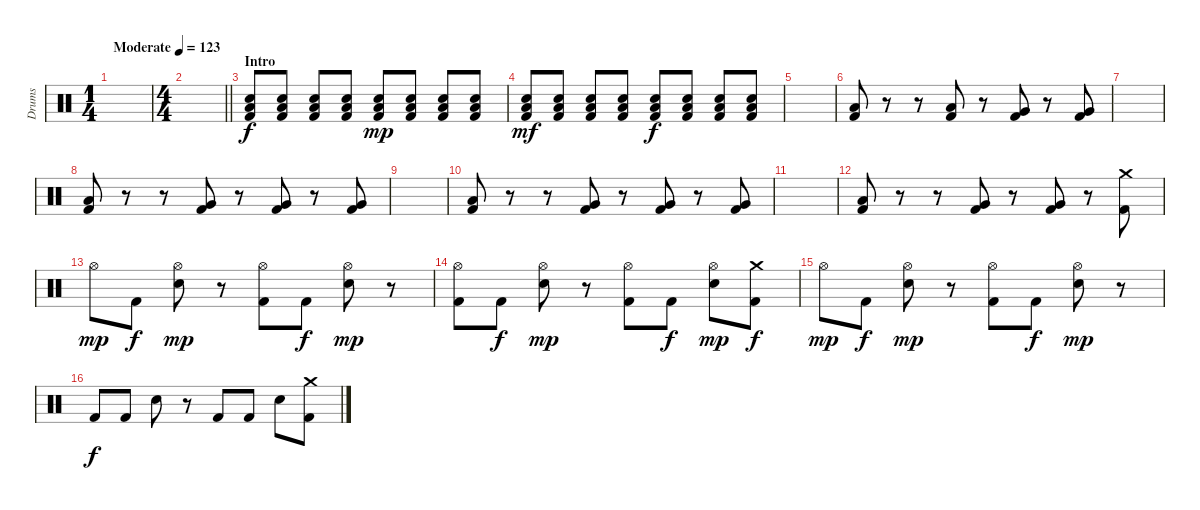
\track ("Drums" "Drums") {instrument percussion}
\staff {score}
\articulation defaults
\ts (1 4)
\tempo (123 "Moderate")
\clef neutral
\ks c
|
\ts (4 4)
\barLineRight lightlight
|
\section ("" "Intro")
("Snare (hit) 2" "Low Tom (hit)" "Kick (hit) 2").8 ("Snare (hit) 2" "Low Tom (hit)" "Kick (hit) 2").8 ("Snare (hit) 2" "Low Tom (hit)" "Kick (hit) 2").8 ("Snare (hit) 2" "Low Tom (hit)" "Kick (hit) 2").8 ("Snare (hit) 2" "Low Tom (hit)" "Kick (hit) 2").8{dy mp} ("Snare (hit) 2" "Low Tom (hit)" "Kick (hit) 2").8 ("Snare (hit) 2" "Low Tom (hit)" "Kick (hit) 2").8 ("Snare (hit) 2" "Low Tom (hit)" "Kick (hit) 2").8 |
("Snare (hit) 2" "Low Tom (hit)" "Kick (hit) 2").8{dy mf} ("Snare (hit) 2" "Low Tom (hit)" "Kick (hit) 2").8 ("Snare (hit) 2" "Low Tom (hit)" "Kick (hit) 2").8 ("Snare (hit) 2" "Low Tom (hit)" "Kick (hit) 2").8 ("Snare (hit) 2" "Low Tom (hit)" "Kick (hit) 2").8{dy f} ("Snare (hit) 2" "Low Tom (hit)" "Kick (hit) 2").8 ("Snare (hit) 2" "Low Tom (hit)" "Kick (hit) 2").8 ("Snare (hit) 2" "Low Tom (hit)" "Kick (hit) 2").8 |
|
("Low Tom (hit)" "Kick (hit) 2").8 r.8 r.8 ("Low Tom (hit)" "Kick (hit) 2").8 r.8 ("Very Low Tom (hit)" "Kick (hit) 2").8 r.8 ("Very Low Tom (hit)" "Kick (hit) 2").8 |
|
("Low Tom (hit)" "Kick (hit) 2").8 r.8 r.8 ("Very Low Tom (hit)" "Kick (hit) 2").8 r.8 ("Very Low Tom (hit)" "Kick (hit) 2").8 r.8 ("Very Low Tom (hit)" "Kick (hit) 2").8 |
|
("Low Tom (hit)" "Kick (hit) 2").8 r.8 r.8 ("Very Low Tom (hit)" "Kick (hit) 2").8 r.8 ("Very Low Tom (hit)" "Kick (hit) 2").8 r.8 ("Very Low Tom (hit)" "Kick (hit) 2").8 |
|
("Low Tom (hit)" "Kick (hit) 2").8 r.8 r.8 ("Very Low Tom (hit)" "Kick (hit) 2").8 r.8 ("Very Low Tom (hit)" "Kick (hit) 2").8 r.8 ("Crash medium (hit)" "Kick (hit) 2").8 |
"Hi-Hat (open)".8{dy mp} "Kick (hit) 2".8{dy f} ("Hi-Hat (open)" "Snare (hit) 2").8{dy mp} r.8 ("Hi-Hat (open)" "Kick (hit) 2").8 "Kick (hit) 2".8{dy f} ("Hi-Hat (open)" "Snare (hit) 2").8{dy mp} r.8 |
("Hi-Hat (open)" "Kick (hit) 2").8 "Kick (hit) 2".8{dy f} ("Hi-Hat (open)" "Snare (hit) 2").8{dy mp} r.8 ("Hi-Hat (open)" "Kick (hit) 2").8 "Kick (hit) 2".8{dy f} ("Hi-Hat (open)" "Snare (hit) 2").8{dy mp} ("Crash medium (hit)" "Kick (hit) 2").8{dy f} |
"Hi-Hat (open)".8{dy mp} "Kick (hit) 2".8{dy f} ("Hi-Hat (open)" "Snare (hit) 2").8{dy mp} r.8 ("Hi-Hat (open)" "Kick (hit) 2").8 "Kick (hit) 2".8{dy f} ("Hi-Hat (open)" "Snare (hit) 2").8{dy mp} r.8 |
"Kick (hit) 2".8{dy f} "Kick (hit) 2".8 "Snare (hit) 2".8 r.8 "Kick (hit) 2".8 "Kick (hit) 2".8 "Snare (hit) 2".8 ("Crash medium (hit)" "Kick (hit) 2").8
